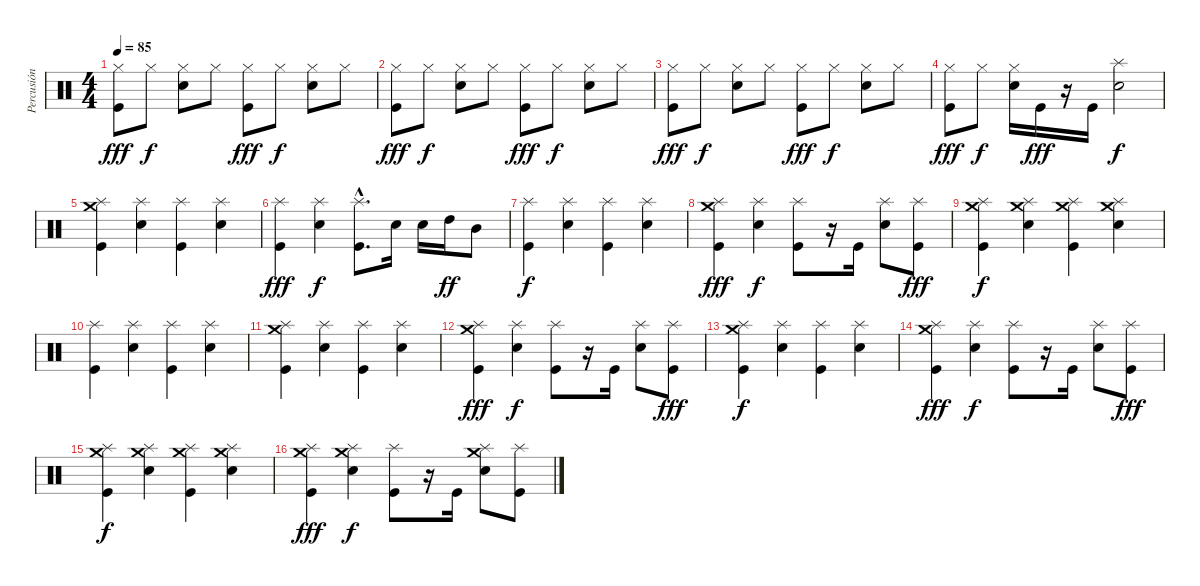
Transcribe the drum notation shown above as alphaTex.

\track ("Percusión" "Percusión") {instrument percussion}
\staff {score}
\articulation defaults
\ts (4 4)
\tempo 85
\clef neutral
\ks c
("Hi-Hat (closed)" "Kick (hit)").8{dy fff} "Hi-Hat (closed)".8{dy f} ("Hi-Hat (closed)" "Electric Snare (hit)").8 "Hi-Hat (closed)".8 ("Hi-Hat (closed)" "Kick (hit)").8{dy fff} "Hi-Hat (closed)".8{dy f} ("Hi-Hat (closed)" "Electric Snare (hit)").8 "Hi-Hat (closed)".8 |
("Hi-Hat (closed)" "Kick (hit)").8{dy fff} "Hi-Hat (closed)".8{dy f} ("Hi-Hat (closed)" "Electric Snare (hit)").8 "Hi-Hat (closed)".8 ("Hi-Hat (closed)" "Kick (hit)").8{dy fff} "Hi-Hat (closed)".8{dy f} ("Hi-Hat (closed)" "Electric Snare (hit)").8 "Hi-Hat (closed)".8 |
("Hi-Hat (closed)" "Kick (hit)").8{dy fff} "Hi-Hat (closed)".8{dy f} ("Hi-Hat (closed)" "Electric Snare (hit)").8 "Hi-Hat (closed)".8 ("Hi-Hat (closed)" "Kick (hit)").8{dy fff} "Hi-Hat (closed)".8{dy f} ("Hi-Hat (closed)" "Electric Snare (hit)").8 "Hi-Hat (closed)".8 |
("Hi-Hat (closed)" "Kick (hit)").8{dy fff} "Hi-Hat (closed)".8{dy f} ("Hi-Hat (closed)" "Electric Snare (hit)").16 "Kick (hit)".16{dy fff} r.16 "Kick (hit)".16 ("Splash (hit)" "Electric Snare (hit)").2{dy f} |
("Splash (hit)" "Kick (hit)" "Crash medium (hit)").4 ("Splash (hit)" "Electric Snare (hit)").4 ("Splash (hit)" "Kick (hit)").4 ("Splash (hit)" "Electric Snare (hit)").4 |
("Splash (hit)" "Kick (hit)").4{dy fff} ("Splash (hit)" "Electric Snare (hit)").4{dy f} ("Splash (hit)"{hac} "Kick (hit)"{hac}).8{d} "Snare (hit) 2".16 "Snare (hit) 2".16 "High Tom (hit)".16{dy ff} "Mid Tom (hit)".8 |
("Splash (hit)" "Kick (hit)").4{dy f} ("Splash (hit)" "Electric Snare (hit)").4 ("Splash (hit)" "Kick (hit)").4 ("Splash (hit)" "Electric Snare (hit)").4 |
("Splash (hit)" "Kick (hit)" "Crash medium (hit)").4{dy fff} ("Splash (hit)" "Electric Snare (hit)").4{dy f} ("Splash (hit)" "Kick (hit)").8 r.16 "Kick (hit)".16 ("Splash (hit)" "Electric Snare (hit)").8 ("Splash (hit)" "Kick (hit)").8{dy fff} |
("Crash medium (hit)" "Kick (hit)" "Splash (hit)").4{dy f} ("Splash (hit)" "Electric Snare (hit)" "Crash medium (hit)").4 ("Splash (hit)" "Kick (hit)" "Crash medium (hit)").4 ("Splash (hit)" "Electric Snare (hit)" "Crash medium (hit)").4 |
("Splash (hit)" "Kick (hit)").4 ("Splash (hit)" "Electric Snare (hit)").4 ("Splash (hit)" "Kick (hit)").4 ("Splash (hit)" "Electric Snare (hit)").4 |
("Splash (hit)" "Kick (hit)" "Crash medium (hit)").4 ("Splash (hit)" "Electric Snare (hit)").4 ("Splash (hit)" "Kick (hit)").4 ("Splash (hit)" "Electric Snare (hit)").4 |
("Splash (hit)" "Kick (hit)" "Crash medium (hit)").4{dy fff} ("Splash (hit)" "Electric Snare (hit)").4{dy f} ("Splash (hit)" "Kick (hit)").8 r.16 "Kick (hit)".16 ("Splash (hit)" "Electric Snare (hit)").8 ("Splash (hit)" "Kick (hit)").8{dy fff} |
("Splash (hit)" "Kick (hit)" "Crash medium (hit)").4{dy f} ("Splash (hit)" "Electric Snare (hit)").4 ("Splash (hit)" "Kick (hit)").4 ("Splash (hit)" "Electric Snare (hit)").4 |
("Splash (hit)" "Kick (hit)" "Crash medium (hit)").4{dy fff} ("Splash (hit)" "Electric Snare (hit)").4{dy f} ("Splash (hit)" "Kick (hit)").8 r.16 "Kick (hit)".16 ("Splash (hit)" "Electric Snare (hit)").8 ("Splash (hit)" "Kick (hit)").8{dy fff} |
("Splash (hit)" "Kick (hit)" "Crash medium (hit)").4{dy f} ("Splash (hit)" "Electric Snare (hit)" "Crash medium (hit)").4 ("Splash (hit)" "Kick (hit)" "Crash medium (hit)").4 ("Splash (hit)" "Electric Snare (hit)" "Crash medium (hit)").4 |
("Splash (hit)" "Kick (hit)" "Crash medium (hit)").4{dy fff} ("Splash (hit)" "Electric Snare (hit)" "Crash medium (hit)").4{dy f} ("Splash (hit)" "Kick (hit)").8 r.16 "Kick (hit)".16 ("Splash (hit)" "Electric Snare (hit)" "Crash medium (hit)").8 ("Splash (hit)" "Kick (hit)").8
